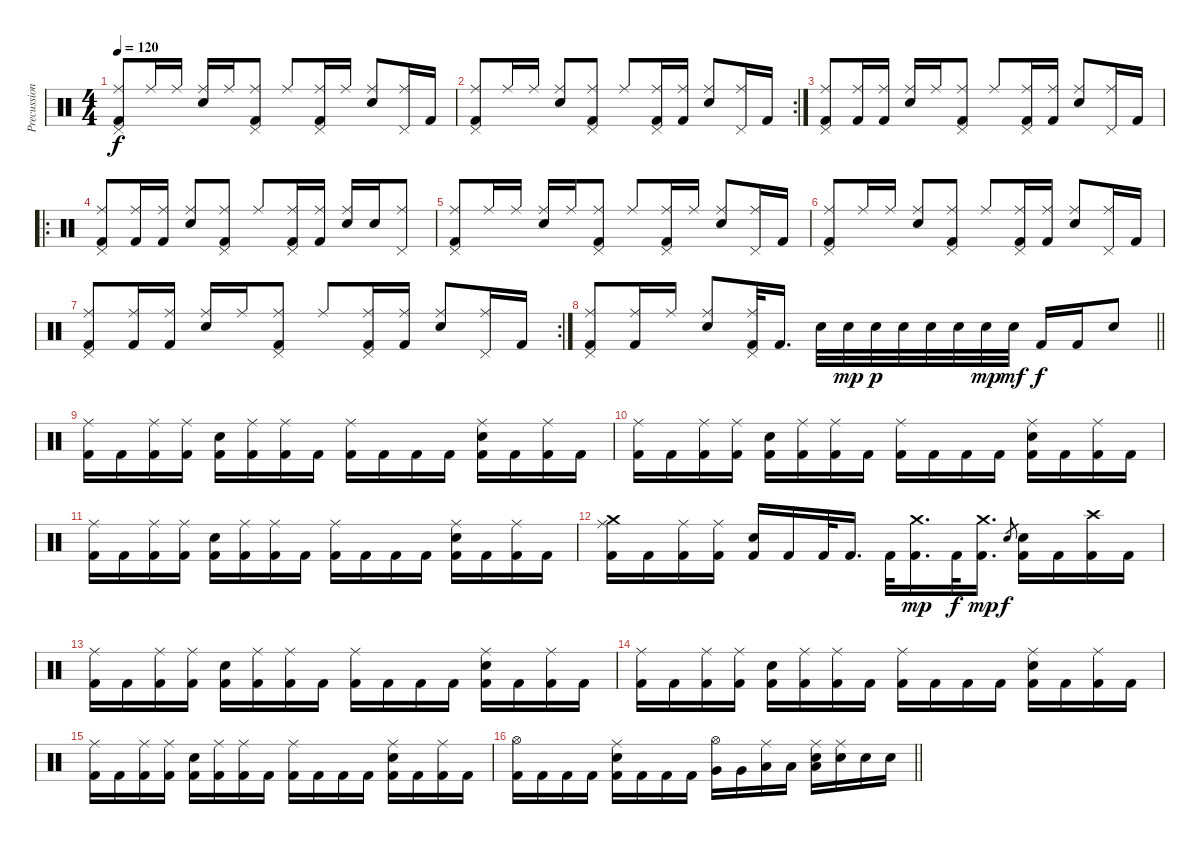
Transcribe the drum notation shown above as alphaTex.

\track ("Precussion" "Precussion") {instrument percussion}
\staff {score}
\articulation defaults
\ts (4 4)
\tempo 120
\clef neutral
\ks c
("Pedal Hi-Hat (hit)" "Ride (middle)" "Kick (hit) 2").8{dy f} "Ride (middle)".16 "Ride (middle)".16 ("Ride (middle)" "Electric Snare (hit)").16 "Ride (middle)".16 ("Pedal Hi-Hat (hit)" "Ride (middle)" "Kick (hit) 2").8 "Ride (middle)".8 ("Pedal Hi-Hat (hit)" "Ride (middle)" "Kick (hit) 2").16 "Ride (middle)".16 ("Ride (middle)" "Electric Snare (hit)").8 ("Pedal Hi-Hat (hit)" "Ride (middle)").16 "Kick (hit) 2".16 |
\rc 2
("Pedal Hi-Hat (hit)" "Ride (middle)" "Kick (hit) 2").8 "Ride (middle)".16 "Ride (middle)".16 ("Ride (middle)" "Electric Snare (hit)").8 ("Pedal Hi-Hat (hit)" "Ride (middle)" "Kick (hit) 2").8 "Ride (middle)".8 ("Pedal Hi-Hat (hit)" "Ride (middle)" "Kick (hit) 2").16 ("Ride (middle)" "Kick (hit) 2").16 ("Ride (middle)" "Electric Snare (hit)").8 ("Pedal Hi-Hat (hit)" "Ride (middle)").16 "Kick (hit) 2".16 |
("Pedal Hi-Hat (hit)" "Ride (middle)" "Kick (hit) 2").8 ("Ride (middle)" "Kick (hit) 2").16 ("Ride (middle)" "Kick (hit) 2").16 ("Ride (middle)" "Electric Snare (hit)").16 "Ride (middle)".16 ("Pedal Hi-Hat (hit)" "Ride (middle)" "Kick (hit) 2").8 "Ride (middle)".8 ("Pedal Hi-Hat (hit)" "Ride (middle)" "Kick (hit) 2").16 ("Ride (middle)" "Kick (hit) 2").16 ("Ride (middle)" "Electric Snare (hit)").8 ("Pedal Hi-Hat (hit)" "Ride (middle)").16 "Kick (hit) 2".16 |
\ro
("Pedal Hi-Hat (hit)" "Ride (middle)" "Kick (hit) 2").8 ("Ride (middle)" "Kick (hit) 2").16 ("Ride (middle)" "Kick (hit) 2").16 ("Ride (middle)" "Electric Snare (hit)").8 ("Pedal Hi-Hat (hit)" "Ride (middle)" "Kick (hit) 2").8 "Ride (middle)".8 ("Pedal Hi-Hat (hit)" "Ride (middle)" "Kick (hit) 2").16 ("Ride (middle)" "Kick (hit) 2").16 ("Ride (middle)" "Electric Snare (hit)").16 "Electric Snare (hit)".16 ("Pedal Hi-Hat (hit)" "Ride (middle)").8 |
("Pedal Hi-Hat (hit)" "Ride (middle)" "Kick (hit) 2").8 "Ride (middle)".16 "Ride (middle)".16 ("Ride (middle)" "Electric Snare (hit)").16 "Ride (middle)".16 ("Pedal Hi-Hat (hit)" "Ride (middle)" "Kick (hit) 2").8 "Ride (middle)".8 ("Pedal Hi-Hat (hit)" "Ride (middle)" "Kick (hit) 2").16 "Ride (middle)".16 ("Ride (middle)" "Electric Snare (hit)").8 ("Pedal Hi-Hat (hit)" "Ride (middle)").16 "Kick (hit) 2".16 |
("Pedal Hi-Hat (hit)" "Ride (middle)" "Kick (hit) 2").8 "Ride (middle)".16 "Ride (middle)".16 ("Ride (middle)" "Electric Snare (hit)").8 ("Pedal Hi-Hat (hit)" "Ride (middle)" "Kick (hit) 2").8 "Ride (middle)".8 ("Pedal Hi-Hat (hit)" "Ride (middle)" "Kick (hit) 2").16 ("Ride (middle)" "Kick (hit) 2").16 ("Ride (middle)" "Electric Snare (hit)").8 ("Pedal Hi-Hat (hit)" "Ride (middle)").16 "Kick (hit) 2".16 |
\rc 2
("Pedal Hi-Hat (hit)" "Ride (middle)" "Kick (hit) 2").8 ("Ride (middle)" "Kick (hit) 2").16 ("Ride (middle)" "Kick (hit) 2").16 ("Ride (middle)" "Electric Snare (hit)").16 "Ride (middle)".16 ("Pedal Hi-Hat (hit)" "Ride (middle)" "Kick (hit) 2").8 "Ride (middle)".8 ("Pedal Hi-Hat (hit)" "Ride (middle)" "Kick (hit) 2").16 ("Ride (middle)" "Kick (hit) 2").16 ("Ride (middle)" "Electric Snare (hit)").8 ("Pedal Hi-Hat (hit)" "Ride (middle)").16 "Kick (hit) 2".16 |
\barLineRight lightlight
("Pedal Hi-Hat (hit)" "Ride (middle)" "Kick (hit) 2").8 ("Ride (middle)" "Kick (hit) 2").16 "Ride (middle)".16 ("Ride (middle)" "Electric Snare (hit)").8 ("Pedal Hi-Hat (hit)" "Ride (middle)" "Kick (hit) 2").32 "Kick (hit) 2".16{d} "Electric Snare (hit)".32 "Electric Snare (hit)".32{dy mp} "Electric Snare (hit)".32{dy p} "Electric Snare (hit)".32 "Electric Snare (hit)".32 "Electric Snare (hit)".32 "Electric Snare (hit)".32{dy mp} "Electric Snare (hit)".32{dy mf} "Kick (hit) 2".16{dy f} "Kick (hit) 2".16 "Electric Snare (hit)".8 |
("Ride (middle)" "Kick (hit) 2").16 "Kick (hit) 2".16 ("Ride (middle)" "Kick (hit) 2").16 ("Ride (middle)" "Kick (hit) 2").16 ("Electric Snare (hit)" "Kick (hit) 2").16 ("Ride (middle)" "Kick (hit) 2").16 ("Ride (middle)" "Kick (hit) 2").16 "Kick (hit) 2".16 ("Ride (middle)" "Kick (hit) 2").16 "Kick (hit) 2".16 "Kick (hit) 2".16 "Kick (hit) 2".16 ("Electric Snare (hit)" "Ride (middle)" "Kick (hit) 2").16 "Kick (hit) 2".16 ("Ride (middle)" "Kick (hit) 2").16 "Kick (hit) 2".16 |
("Ride (middle)" "Kick (hit) 2").16 "Kick (hit) 2".16 ("Ride (middle)" "Kick (hit) 2").16 ("Ride (middle)" "Kick (hit) 2").16 ("Electric Snare (hit)" "Kick (hit) 2").16 ("Ride (middle)" "Kick (hit) 2").16 ("Ride (middle)" "Kick (hit) 2").16 "Kick (hit) 2".16 ("Ride (middle)" "Kick (hit) 2").16 "Kick (hit) 2".16 "Kick (hit) 2".16 "Kick (hit) 2".16 ("Electric Snare (hit)" "Ride (middle)" "Kick (hit) 2").16 "Kick (hit) 2".16 ("Ride (middle)" "Kick (hit) 2").16 "Kick (hit) 2".16 |
("Ride (middle)" "Kick (hit) 2").16 "Kick (hit) 2".16 ("Ride (middle)" "Kick (hit) 2").16 ("Ride (middle)" "Kick (hit) 2").16 ("Electric Snare (hit)" "Kick (hit) 2").16 ("Ride (middle)" "Kick (hit) 2").16 ("Ride (middle)" "Kick (hit) 2").16 "Kick (hit) 2".16 ("Ride (middle)" "Kick (hit) 2").16 "Kick (hit) 2".16 "Kick (hit) 2".16 "Kick (hit) 2".16 ("Electric Snare (hit)" "Ride (middle)" "Kick (hit) 2").16 "Kick (hit) 2".16 ("Ride (middle)" "Kick (hit) 2").16 "Kick (hit) 2".16 |
("Crash medium (hit)" "Ride (middle)" "Kick (hit) 2").16 "Kick (hit) 2".16 ("Ride (middle)" "Kick (hit) 2").16 ("Ride (middle)" "Kick (hit) 2").16 ("Electric Snare (hit)" "Kick (hit) 2").16 "Kick (hit) 2".16 "Kick (hit) 2".32 "Kick (hit) 2".16{d} "Kick (hit) 2".32 ("Crash medium (hit)" "Kick (hit) 2").16{d dy mp} "Kick (hit) 2".32{dy f} ("Crash medium (hit)" "Kick (hit) 2").16{d dy mp} "Electric Snare (hit)".8{gr dy f} ("Electric Snare (hit)" "Kick (hit) 2").16 "Kick (hit) 2".16 ("Crash high (hit)" "Kick (hit) 2").16 "Kick (hit) 2".16 |
("Ride (middle)" "Kick (hit) 2").16 "Kick (hit) 2".16 ("Ride (middle)" "Kick (hit) 2").16 ("Ride (middle)" "Kick (hit) 2").16 ("Electric Snare (hit)" "Kick (hit) 2").16 ("Ride (middle)" "Kick (hit) 2").16 ("Ride (middle)" "Kick (hit) 2").16 "Kick (hit) 2".16 ("Ride (middle)" "Kick (hit) 2").16 "Kick (hit) 2".16 "Kick (hit) 2".16 "Kick (hit) 2".16 ("Electric Snare (hit)" "Ride (middle)" "Kick (hit) 2").16 "Kick (hit) 2".16 ("Ride (middle)" "Kick (hit) 2").16 "Kick (hit) 2".16 |
("Ride (middle)" "Kick (hit) 2").16 "Kick (hit) 2".16 ("Ride (middle)" "Kick (hit) 2").16 ("Ride (middle)" "Kick (hit) 2").16 ("Electric Snare (hit)" "Kick (hit) 2").16 ("Ride (middle)" "Kick (hit) 2").16 ("Ride (middle)" "Kick (hit) 2").16 "Kick (hit) 2".16 ("Ride (middle)" "Kick (hit) 2").16 "Kick (hit) 2".16 "Kick (hit) 2".16 "Kick (hit) 2".16 ("Electric Snare (hit)" "Ride (middle)" "Kick (hit) 2").16 "Kick (hit) 2".16 ("Ride (middle)" "Kick (hit) 2").16 "Kick (hit) 2".16 |
("Ride (middle)" "Kick (hit) 2").16 "Kick (hit) 2".16 ("Ride (middle)" "Kick (hit) 2").16 ("Ride (middle)" "Kick (hit) 2").16 ("Electric Snare (hit)" "Kick (hit) 2").16 ("Ride (middle)" "Kick (hit) 2").16 ("Ride (middle)" "Kick (hit) 2").16 "Kick (hit) 2".16 ("Ride (middle)" "Kick (hit) 2").16 "Kick (hit) 2".16 "Kick (hit) 2".16 "Kick (hit) 2".16 ("Electric Snare (hit)" "Ride (middle)" "Kick (hit) 2").16 "Kick (hit) 2".16 ("Ride (middle)" "Kick (hit) 2").16 "Kick (hit) 2".16 |
\barLineRight lightlight
("Hi-Hat (open)" "Kick (hit) 2").16 "Kick (hit) 2".16 "Kick (hit) 2".16 "Kick (hit) 2".16 ("Electric Snare (hit)" "Ride (middle)" "Kick (hit) 2").16 "Kick (hit) 2".16 "Kick (hit) 2".16 "Kick (hit) 2".16 ("Hi-Hat (open)" "Very Low Tom (hit)").16 "Very Low Tom (hit)".16 ("Ride (middle)" "Low Floor Tom (hit)").16 "Low Floor Tom (hit)".16 ("Electric Snare (hit)" "Ride (middle)" "Low Floor Tom (hit)").16 ("Ride (middle)" "Electric Snare (hit)").16 "Electric Snare (hit)".16 "Electric Snare (hit)".16
